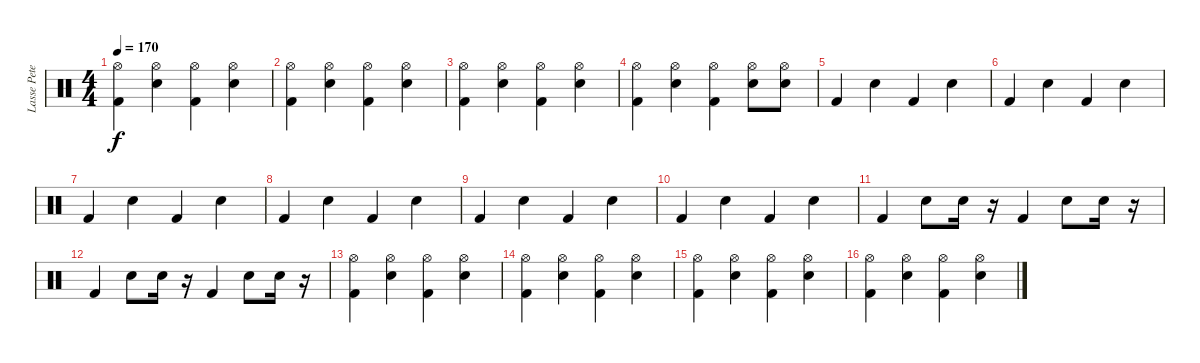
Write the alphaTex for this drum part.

\track ("Lasse Peterson" "Lasse Pete") {instrument percussion}
\staff {score}
\articulation defaults
\ts (4 4)
\tempo 170
\clef neutral
\ks c
("Hi-Hat (open)" "Kick (hit) 2").4{dy f} ("Hi-Hat (open)" "Snare (hit) 2").4 ("Hi-Hat (open)" "Kick (hit) 2").4 ("Hi-Hat (open)" "Snare (hit) 2").4 |
("Hi-Hat (open)" "Kick (hit) 2").4 ("Hi-Hat (open)" "Snare (hit) 2").4 ("Hi-Hat (open)" "Kick (hit) 2").4 ("Hi-Hat (open)" "Snare (hit) 2").4 |
("Hi-Hat (open)" "Kick (hit) 2").4 ("Hi-Hat (open)" "Snare (hit) 2").4 ("Hi-Hat (open)" "Kick (hit) 2").4 ("Hi-Hat (open)" "Snare (hit) 2").4 |
("Hi-Hat (open)" "Kick (hit) 2").4 ("Hi-Hat (open)" "Snare (hit) 2").4 ("Hi-Hat (open)" "Kick (hit) 2").4 ("Hi-Hat (open)" "Snare (hit) 2").8 ("Hi-Hat (open)" "Snare (hit) 2").8 |
"Kick (hit) 2".4 "Snare (hit) 2".4 "Kick (hit) 2".4 "Snare (hit) 2".4 |
"Kick (hit) 2".4 "Snare (hit) 2".4 "Kick (hit) 2".4 "Snare (hit) 2".4 |
"Kick (hit) 2".4 "Snare (hit) 2".4 "Kick (hit) 2".4 "Snare (hit) 2".4 |
"Kick (hit) 2".4 "Snare (hit) 2".4 "Kick (hit) 2".4 "Snare (hit) 2".4 |
"Kick (hit) 2".4 "Snare (hit) 2".4 "Kick (hit) 2".4 "Snare (hit) 2".4 |
"Kick (hit) 2".4 "Snare (hit) 2".4 "Kick (hit) 2".4 "Snare (hit) 2".4 |
"Kick (hit) 2".4 "Snare (hit) 2".8 "Snare (hit) 2".16 r.16 "Kick (hit) 2".4 "Snare (hit) 2".8 "Snare (hit) 2".16 r.16 |
"Kick (hit) 2".4 "Snare (hit) 2".8 "Snare (hit) 2".16 r.16 "Kick (hit) 2".4 "Snare (hit) 2".8 "Snare (hit) 2".16 r.16 |
("Hi-Hat (open)" "Kick (hit) 2").4 ("Hi-Hat (open)" "Snare (hit) 2").4 ("Hi-Hat (open)" "Kick (hit) 2").4 ("Hi-Hat (open)" "Snare (hit) 2").4 |
("Hi-Hat (open)" "Kick (hit) 2").4 ("Hi-Hat (open)" "Snare (hit) 2").4 ("Hi-Hat (open)" "Kick (hit) 2").4 ("Hi-Hat (open)" "Snare (hit) 2").4 |
("Hi-Hat (open)" "Kick (hit) 2").4 ("Hi-Hat (open)" "Snare (hit) 2").4 ("Hi-Hat (open)" "Kick (hit) 2").4 ("Hi-Hat (open)" "Snare (hit) 2").4 |
("Hi-Hat (open)" "Kick (hit) 2").4 ("Hi-Hat (open)" "Snare (hit) 2").4 ("Hi-Hat (open)" "Kick (hit) 2").4 ("Hi-Hat (open)" "Snare (hit) 2").4
